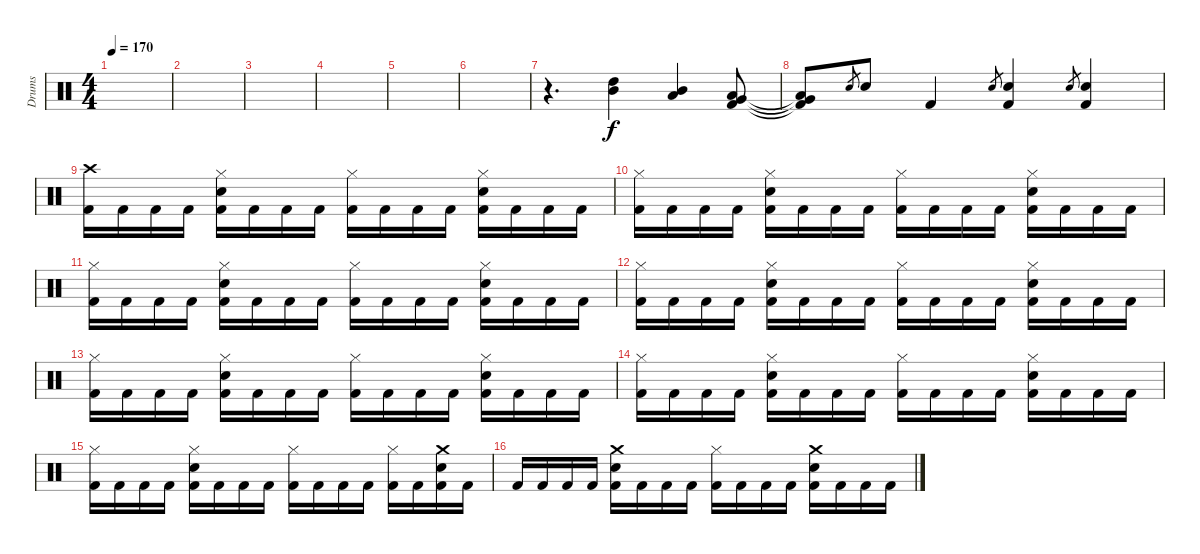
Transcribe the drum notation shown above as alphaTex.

\track ("Drums" "Drums") {instrument percussion}
\staff {score}
\articulation defaults
\ts (4 4)
\tempo 170
\clef neutral
\ks c
|
|
|
|
|
|
r.4{d} ("High Tom (hit)" "Mid Tom (hit)").4 ("Mid Tom (hit)" "Low Tom (hit)").4 ("Low Tom (hit)" "Very Low Tom (hit)" "Kick (hit) 2").8 |
("Low Tom (hit)"{t} "Very Low Tom (hit)"{t} "Kick (hit) 2"{t}).8 "Snare (hit) 2".8{gr} "Snare (hit) 2".8 "Kick (hit) 2".4 "Snare (hit) 2".8{gr} ("Snare (hit) 2" "Kick (hit) 2").4 "Snare (hit) 2".8{gr} ("Snare (hit) 2" "Kick (hit) 2").4 |
("Crash high (hit)" "Kick (hit) 2").16 "Kick (hit) 2".16 "Kick (hit) 2".16 "Kick (hit) 2".16 ("Hi-Hat (closed)" "Snare (hit) 2" "Kick (hit) 2").16 "Kick (hit) 2".16 "Kick (hit) 2".16 "Kick (hit) 2".16 ("Hi-Hat (closed)" "Kick (hit) 2").16 "Kick (hit) 2".16 "Kick (hit) 2".16 "Kick (hit) 2".16 ("Hi-Hat (closed)" "Snare (hit) 2" "Kick (hit) 2").16 "Kick (hit) 2".16 "Kick (hit) 2".16 "Kick (hit) 2".16 |
("Hi-Hat (closed)" "Kick (hit) 2").16 "Kick (hit) 2".16 "Kick (hit) 2".16 "Kick (hit) 2".16 ("Hi-Hat (closed)" "Snare (hit) 2" "Kick (hit) 2").16 "Kick (hit) 2".16 "Kick (hit) 2".16 "Kick (hit) 2".16 ("Hi-Hat (closed)" "Kick (hit) 2").16 "Kick (hit) 2".16 "Kick (hit) 2".16 "Kick (hit) 2".16 ("Hi-Hat (closed)" "Snare (hit) 2" "Kick (hit) 2").16 "Kick (hit) 2".16 "Kick (hit) 2".16 "Kick (hit) 2".16 |
("Hi-Hat (closed)" "Kick (hit) 2").16 "Kick (hit) 2".16 "Kick (hit) 2".16 "Kick (hit) 2".16 ("Hi-Hat (closed)" "Snare (hit) 2" "Kick (hit) 2").16 "Kick (hit) 2".16 "Kick (hit) 2".16 "Kick (hit) 2".16 ("Hi-Hat (closed)" "Kick (hit) 2").16 "Kick (hit) 2".16 "Kick (hit) 2".16 "Kick (hit) 2".16 ("Hi-Hat (closed)" "Snare (hit) 2" "Kick (hit) 2").16 "Kick (hit) 2".16 "Kick (hit) 2".16 "Kick (hit) 2".16 |
("Hi-Hat (closed)" "Kick (hit) 2").16 "Kick (hit) 2".16 "Kick (hit) 2".16 "Kick (hit) 2".16 ("Hi-Hat (closed)" "Snare (hit) 2" "Kick (hit) 2").16 "Kick (hit) 2".16 "Kick (hit) 2".16 "Kick (hit) 2".16 ("Hi-Hat (closed)" "Kick (hit) 2").16 "Kick (hit) 2".16 "Kick (hit) 2".16 "Kick (hit) 2".16 ("Hi-Hat (closed)" "Snare (hit) 2" "Kick (hit) 2").16 "Kick (hit) 2".16 "Kick (hit) 2".16 "Kick (hit) 2".16 |
("Hi-Hat (closed)" "Kick (hit) 2").16 "Kick (hit) 2".16 "Kick (hit) 2".16 "Kick (hit) 2".16 ("Hi-Hat (closed)" "Snare (hit) 2" "Kick (hit) 2").16 "Kick (hit) 2".16 "Kick (hit) 2".16 "Kick (hit) 2".16 ("Hi-Hat (closed)" "Kick (hit) 2").16 "Kick (hit) 2".16 "Kick (hit) 2".16 "Kick (hit) 2".16 ("Hi-Hat (closed)" "Snare (hit) 2" "Kick (hit) 2").16 "Kick (hit) 2".16 "Kick (hit) 2".16 "Kick (hit) 2".16 |
("Hi-Hat (closed)" "Kick (hit) 2").16 "Kick (hit) 2".16 "Kick (hit) 2".16 "Kick (hit) 2".16 ("Hi-Hat (closed)" "Snare (hit) 2" "Kick (hit) 2").16 "Kick (hit) 2".16 "Kick (hit) 2".16 "Kick (hit) 2".16 ("Hi-Hat (closed)" "Kick (hit) 2").16 "Kick (hit) 2".16 "Kick (hit) 2".16 "Kick (hit) 2".16 ("Hi-Hat (closed)" "Snare (hit) 2" "Kick (hit) 2").16 "Kick (hit) 2".16 "Kick (hit) 2".16 "Kick (hit) 2".16 |
("Hi-Hat (closed)" "Kick (hit) 2").16 "Kick (hit) 2".16 "Kick (hit) 2".16 "Kick (hit) 2".16 ("Hi-Hat (closed)" "Snare (hit) 2" "Kick (hit) 2").16 "Kick (hit) 2".16 "Kick (hit) 2".16 "Kick (hit) 2".16 ("Hi-Hat (closed)" "Kick (hit) 2").16 "Kick (hit) 2".16 "Kick (hit) 2".16 "Kick (hit) 2".16 ("Hi-Hat (closed)" "Kick (hit) 2").16 "Kick (hit) 2".16 ("Crash medium (hit)" "Snare (hit) 2" "Kick (hit) 2").16 "Kick (hit) 2".16 |
"Kick (hit) 2".16 "Kick (hit) 2".16 "Kick (hit) 2".16 "Kick (hit) 2".16 ("Crash medium (hit)" "Snare (hit) 2" "Kick (hit) 2").16 "Kick (hit) 2".16 "Kick (hit) 2".16 "Kick (hit) 2".16 ("Hi-Hat (closed)" "Kick (hit) 2").16 "Kick (hit) 2".16 "Kick (hit) 2".16 "Kick (hit) 2".16 ("Crash medium (hit)" "Snare (hit) 2" "Kick (hit) 2").16 "Kick (hit) 2".16 "Kick (hit) 2".16 "Kick (hit) 2".16
